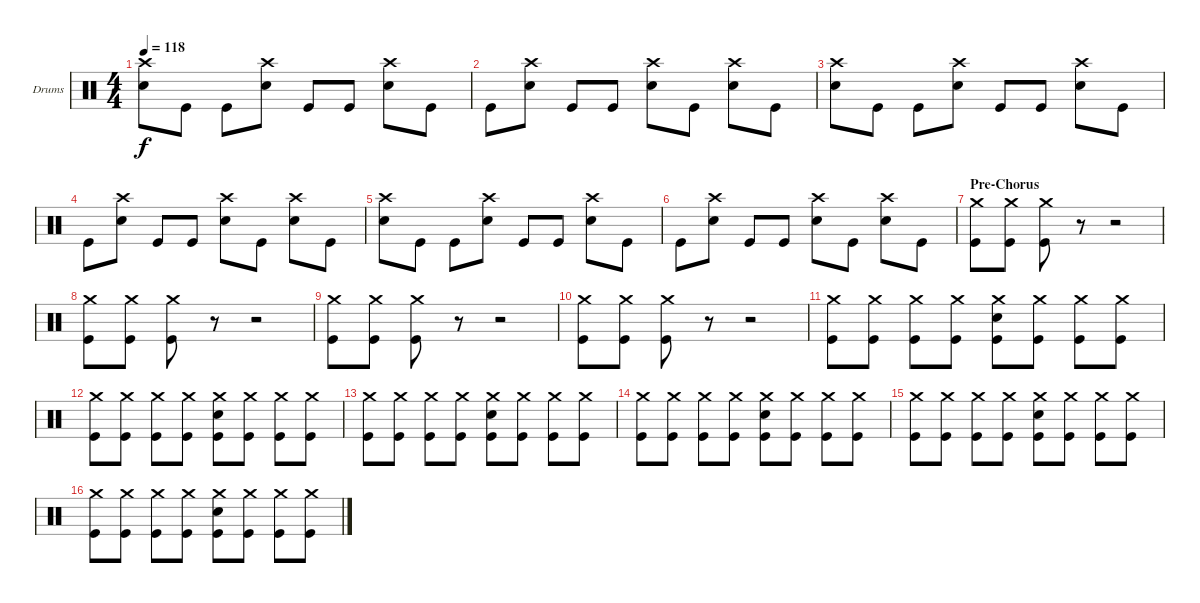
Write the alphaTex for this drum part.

\bracketExtendMode groupsimilarinstruments
\firstSystemTrackNameOrientation horizontal
\otherSystemsTrackNameOrientation horizontal
\track ("Drumkit" "Drums") {solo instrument percussion}
\staff {score}
\articulation defaults
\ts (4 4)
\tempo 118
\clef neutral
\ks c
("Snare (hit) 2" "Crash high (hit)").8{dy f} "Kick (hit)".8 "Kick (hit)".8 ("Snare (hit) 2" "Crash high (hit)").8 "Kick (hit)".8 "Kick (hit)".8 ("Snare (hit) 2" "Crash high (hit)").8 "Kick (hit)".8 |
"Kick (hit)".8 ("Snare (hit) 2" "Crash high (hit)").8 "Kick (hit)".8 "Kick (hit)".8 ("Snare (hit) 2" "Crash high (hit)").8 "Kick (hit)".8 ("Snare (hit) 2" "Crash high (hit)").8 "Kick (hit)".8 |
("Snare (hit) 2" "Crash high (hit)").8 "Kick (hit)".8 "Kick (hit)".8 ("Snare (hit) 2" "Crash high (hit)").8 "Kick (hit)".8 "Kick (hit)".8 ("Snare (hit) 2" "Crash high (hit)").8 "Kick (hit)".8 |
"Kick (hit)".8 ("Snare (hit) 2" "Crash high (hit)").8 "Kick (hit)".8 "Kick (hit)".8 ("Snare (hit) 2" "Crash high (hit)").8 "Kick (hit)".8 ("Snare (hit) 2" "Crash high (hit)").8 "Kick (hit)".8 |
("Snare (hit) 2" "Crash high (hit)").8 "Kick (hit)".8 "Kick (hit)".8 ("Snare (hit) 2" "Crash high (hit)").8 "Kick (hit)".8 "Kick (hit)".8 ("Snare (hit) 2" "Crash high (hit)").8 "Kick (hit)".8 |
"Kick (hit)".8 ("Snare (hit) 2" "Crash high (hit)").8 "Kick (hit)".8 "Kick (hit)".8 ("Snare (hit) 2" "Crash high (hit)").8 "Kick (hit)".8 ("Snare (hit) 2" "Crash high (hit)").8 "Kick (hit)".8 |
\section ("" "Pre-Chorus")
("Kick (hit)" "Crash medium (hit)").8 ("Kick (hit)" "Crash medium (hit)").8 ("Kick (hit)" "Crash medium (hit)").8 r.8 r.2 |
("Kick (hit)" "Crash medium (hit)").8 ("Kick (hit)" "Crash medium (hit)").8 ("Kick (hit)" "Crash medium (hit)").8 r.8 r.2 |
("Kick (hit)" "Crash medium (hit)").8 ("Kick (hit)" "Crash medium (hit)").8 ("Kick (hit)" "Crash medium (hit)").8 r.8 r.2 |
("Kick (hit)" "Crash medium (hit)").8 ("Kick (hit)" "Crash medium (hit)").8 ("Kick (hit)" "Crash medium (hit)").8 r.8 r.2 |
("Kick (hit)" "Crash medium (hit)").8 ("Kick (hit)" "Crash medium (hit)").8 ("Kick (hit)" "Crash medium (hit)").8 ("Kick (hit)" "Crash medium (hit)").8 ("Kick (hit)" "Snare (hit) 2" "Crash medium (hit)").8 ("Kick (hit)" "Crash medium (hit)").8 ("Kick (hit)" "Crash medium (hit)").8 ("Kick (hit)" "Crash medium (hit)").8 |
("Kick (hit)" "Crash medium (hit)").8 ("Kick (hit)" "Crash medium (hit)").8 ("Kick (hit)" "Crash medium (hit)").8 ("Kick (hit)" "Crash medium (hit)").8 ("Kick (hit)" "Snare (hit) 2" "Crash medium (hit)").8 ("Kick (hit)" "Crash medium (hit)").8 ("Kick (hit)" "Crash medium (hit)").8 ("Kick (hit)" "Crash medium (hit)").8 |
("Kick (hit)" "Crash medium (hit)").8 ("Kick (hit)" "Crash medium (hit)").8 ("Kick (hit)" "Crash medium (hit)").8 ("Kick (hit)" "Crash medium (hit)").8 ("Kick (hit)" "Snare (hit) 2" "Crash medium (hit)").8 ("Kick (hit)" "Crash medium (hit)").8 ("Kick (hit)" "Crash medium (hit)").8 ("Kick (hit)" "Crash medium (hit)").8 |
("Kick (hit)" "Crash medium (hit)").8 ("Kick (hit)" "Crash medium (hit)").8 ("Kick (hit)" "Crash medium (hit)").8 ("Kick (hit)" "Crash medium (hit)").8 ("Kick (hit)" "Snare (hit) 2" "Crash medium (hit)").8 ("Kick (hit)" "Crash medium (hit)").8 ("Kick (hit)" "Crash medium (hit)").8 ("Kick (hit)" "Crash medium (hit)").8 |
("Kick (hit)" "Crash medium (hit)").8 ("Kick (hit)" "Crash medium (hit)").8 ("Kick (hit)" "Crash medium (hit)").8 ("Kick (hit)" "Crash medium (hit)").8 ("Kick (hit)" "Snare (hit) 2" "Crash medium (hit)").8 ("Kick (hit)" "Crash medium (hit)").8 ("Kick (hit)" "Crash medium (hit)").8 ("Kick (hit)" "Crash medium (hit)").8 |
("Kick (hit)" "Crash medium (hit)").8 ("Kick (hit)" "Crash medium (hit)").8 ("Kick (hit)" "Crash medium (hit)").8 ("Kick (hit)" "Crash medium (hit)").8 ("Kick (hit)" "Snare (hit) 2" "Crash medium (hit)").8 ("Kick (hit)" "Crash medium (hit)").8 ("Kick (hit)" "Crash medium (hit)").8 ("Kick (hit)" "Crash medium (hit)").8
